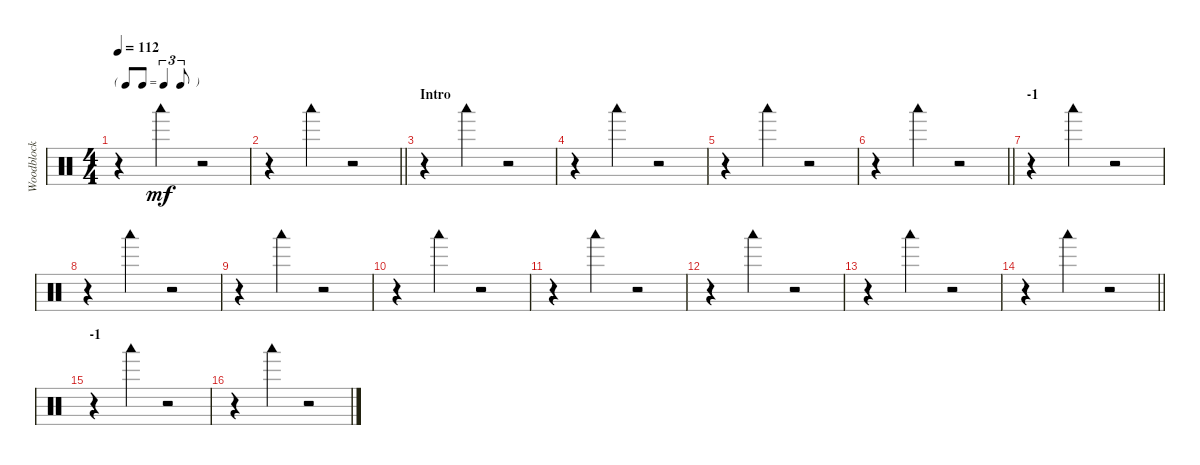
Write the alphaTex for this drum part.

\track ("Woodblock" "Woodblock") {instrument percussion}
\staff {score}
\articulation defaults
\ts (4 4)
\tf triplet8th
\tempo 112
\clef neutral
\ks c
r.4{dy mf} "Woodblock low (hit)".4 r.2 |
\barLineRight lightlight
r.4 "Woodblock low (hit)".4 r.2 |
\section ("" "Intro")
r.4 "Woodblock low (hit)".4 r.2 |
r.4 "Woodblock low (hit)".4 r.2 |
r.4 "Woodblock low (hit)".4 r.2 |
\barLineRight lightlight
r.4 "Woodblock low (hit)".4 r.2 |
\section ("" "-1")
r.4 "Woodblock low (hit)".4 r.2 |
r.4 "Woodblock low (hit)".4 r.2 |
r.4 "Woodblock low (hit)".4 r.2 |
r.4 "Woodblock low (hit)".4 r.2 |
r.4 "Woodblock low (hit)".4 r.2 |
r.4 "Woodblock low (hit)".4 r.2 |
r.4 "Woodblock low (hit)".4 r.2 |
\barLineRight lightlight
r.4 "Woodblock low (hit)".4 r.2 |
\section ("" "-1")
r.4 "Woodblock low (hit)".4 r.2 |
r.4 "Woodblock low (hit)".4 r.2
